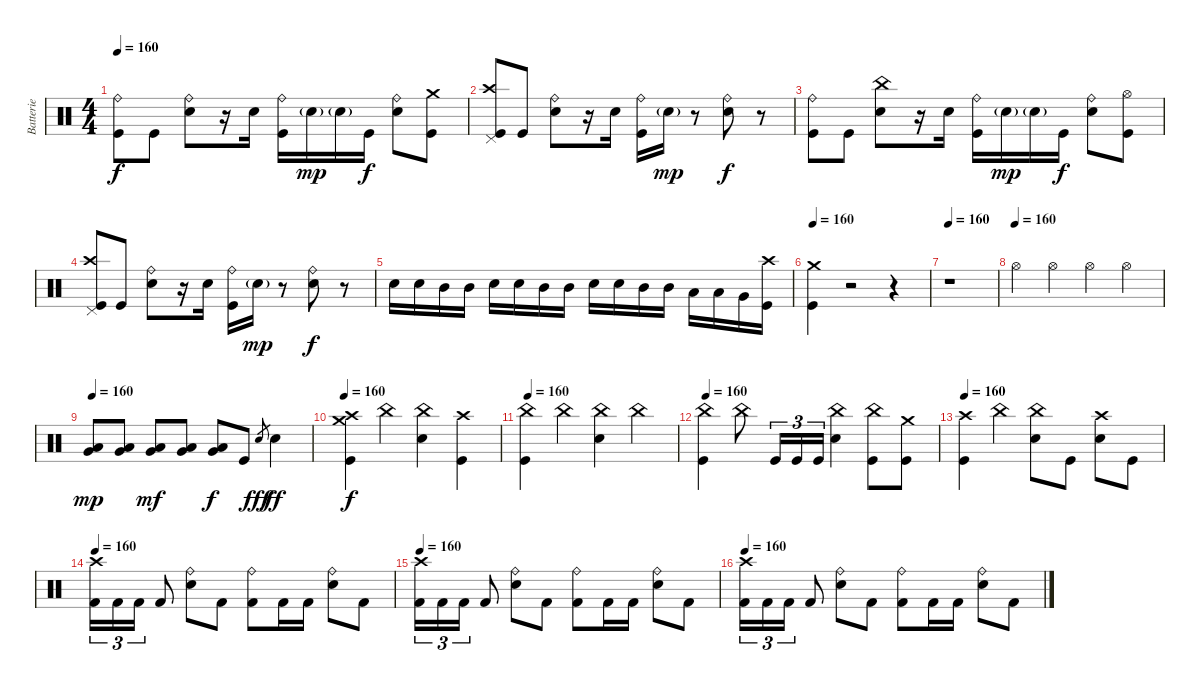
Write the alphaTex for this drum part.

\track ("Batterie" "Batterie") {instrument percussion}
\staff {score}
\articulation defaults
\ts (4 4)
\tempo 160
\clef neutral
\ks c
("Ride (bell)" "Kick (hit)").8{dy f} "Kick (hit)".8 ("Ride (bell)" "Electric Snare (hit)").8 r.16 "Electric Snare (hit)".16 ("Ride (bell)" "Kick (hit)").16 "Electric Snare (hit)"{g}.16{dy mp} "Electric Snare (hit)"{g}.16 "Kick (hit)".16{dy f} ("Ride (bell)" "Electric Snare (hit)").8 ("Crash medium (hit)" "Kick (hit)").8 |
("Crash high (hit)" "Pedal Hi-Hat (hit)" "Kick (hit)").8 "Kick (hit)".8 ("Ride (bell)" "Electric Snare (hit)").8 r.16 "Electric Snare (hit)".16 ("Ride (bell)" "Kick (hit)").16 "Electric Snare (hit)"{g}.16{dy mp} r.8 ("Ride (bell)" "Electric Snare (hit)").8{dy f} r.8 |
("Ride (bell)" "Kick (hit)").8 "Kick (hit)".8 ("China (hit)" "Electric Snare (hit)").8 r.16 "Electric Snare (hit)".16 ("Ride (bell)" "Kick (hit)").16 "Electric Snare (hit)"{g}.16{dy mp} "Electric Snare (hit)"{g}.16 "Kick (hit)".16{dy f} ("Ride (bell)" "Electric Snare (hit)").8 ("Hi-Hat (open)" "Kick (hit)").8 |
("Crash high (hit)" "Pedal Hi-Hat (hit)" "Kick (hit)").8 "Kick (hit)".8 ("Ride (bell)" "Electric Snare (hit)").8 r.16 "Electric Snare (hit)".16 ("Ride (bell)" "Kick (hit)").16 "Electric Snare (hit)"{g}.16{dy mp} r.8 ("Ride (bell)" "Electric Snare (hit)").8{dy f} r.8 |
"Electric Snare (hit)".16 "Electric Snare (hit)".16 "Mid Tom (hit)".16 "Mid Tom (hit)".16 "Electric Snare (hit)".16 "Electric Snare (hit)".16 "Mid Tom (hit)".16 "Mid Tom (hit)".16 "Electric Snare (hit)".16 "Electric Snare (hit)".16 "Mid Tom (hit)".16 "Mid Tom (hit)".16 "Low Tom (hit)".16 "Low Tom (hit)".16 "Very Low Tom (hit)".16 ("Crash high (hit)" "Kick (hit)").16 |
\tempo 160
("Crash medium (hit)" "Kick (hit)").4 r.2 r.4 |
\tempo 160
r.1 |
\tempo (160)
"Hi-Hat (open)".4 "Hi-Hat (open)".4 "Hi-Hat (open)".4 "Hi-Hat (open)".4 |
\tempo 160
("Low Tom (hit)" "Very Low Tom (hit)").8{dy mp} ("Low Tom (hit)" "Very Low Tom (hit)").8 ("Low Tom (hit)" "Very Low Tom (hit)").8{dy mf} ("Low Tom (hit)" "Very Low Tom (hit)").8 ("Low Tom (hit)" "Very Low Tom (hit)").8{dy f} "Kick (hit)".8 "Electric Snare (hit)".8{gr dy fff} "Electric Snare (hit)".4{dy ff} |
\tempo 160
("Crash high (hit)" "Crash medium (hit)" "Kick (hit)").4{dy f} "China (hit)".4 ("China (hit)" "Electric Snare (hit)").4 ("Crash high (hit)" "Kick (hit)").4 |
\tempo 160
("China (hit)" "Kick (hit)").4 "China (hit)".4 ("China (hit)" "Electric Snare (hit)").4 "China (hit)".4 |
\tempo 160
("China (hit)" "Kick (hit)").4 "China (hit)".8 "Kick (hit)".16{tu (3 2)} "Kick (hit)".16{tu (3 2)} "Kick (hit)".16{tu (3 2)} ("China (hit)" "Electric Snare (hit)").4 ("China (hit)" "Kick (hit)").8 ("Crash medium (hit)" "Kick (hit)").8 |
\tempo 160
("Crash high (hit)" "Kick (hit)").4 "China (hit)".4 ("China (hit)" "Electric Snare (hit)").8 "Kick (hit)".8 ("Crash high (hit)" "Electric Snare (hit)").8 "Kick (hit)".8 |
\tempo 160
("Crash high (hit)" "Kick (hit) 2").16{tu (3 2)} "Kick (hit) 2".16{tu (3 2)} "Kick (hit) 2".16{tu (3 2)} "Kick (hit) 2".8 ("Ride (bell)" "Electric Snare (hit)").8 "Kick (hit) 2".8 ("Ride (bell)" "Kick (hit) 2").8 "Kick (hit) 2".16 "Kick (hit) 2".16 ("Ride (bell)" "Electric Snare (hit)").8 "Kick (hit) 2".8 |
\tempo 160
("Crash high (hit)" "Kick (hit) 2").16{tu (3 2)} "Kick (hit) 2".16{tu (3 2)} "Kick (hit) 2".16{tu (3 2)} "Kick (hit) 2".8 ("Ride (bell)" "Electric Snare (hit)").8 "Kick (hit) 2".8 ("Ride (bell)" "Kick (hit) 2").8 "Kick (hit) 2".16 "Kick (hit) 2".16 ("Ride (bell)" "Electric Snare (hit)").8 "Kick (hit) 2".8 |
\tempo 160
("Crash high (hit)" "Kick (hit) 2").16{tu (3 2)} "Kick (hit) 2".16{tu (3 2)} "Kick (hit) 2".16{tu (3 2)} "Kick (hit) 2".8 ("Ride (bell)" "Electric Snare (hit)").8 "Kick (hit) 2".8 ("Ride (bell)" "Kick (hit) 2").8 "Kick (hit) 2".16 "Kick (hit) 2".16 ("Ride (bell)" "Electric Snare (hit)").8 "Kick (hit) 2".8
